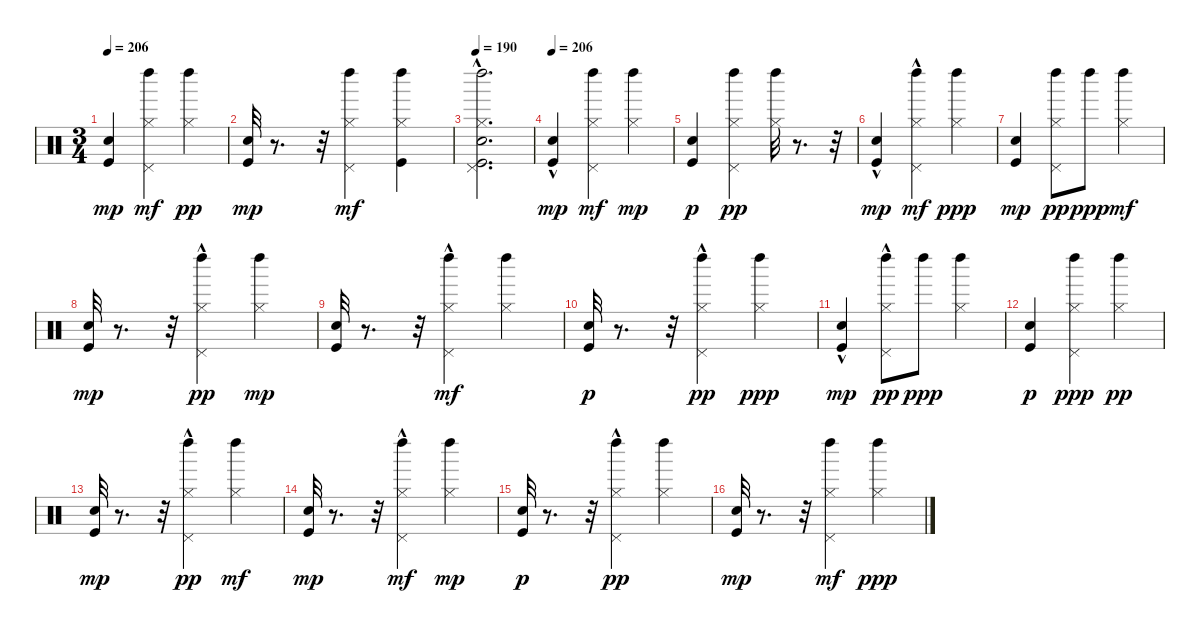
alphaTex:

\track "" {instrument percussion}
\staff {score}
\articulation defaults
\ts (3 4)
\tempo 206
\clef neutral
\ks c
("Kick (hit)" "Snare (hit)").4{dy mp} ("Pedal Hi-Hat (hit)" "Left Maraca (hit)" "Hi-Hat (closed)").4{dy mf} ("Hi-Hat (closed)" "Left Maraca (hit)").4{dy pp} |
("Kick (hit)" "Snare (hit)").32{dy mp} r.8{d} r.32 ("Pedal Hi-Hat (hit)" "Left Maraca (hit)" "Hi-Hat (closed)").4{dy mf} ("Kick (hit)" "Left Maraca (hit)" "Hi-Hat (closed)").4 |
\tempo 190
("Snare (hit)" "Kick (hit)" "Left Maraca (hit)" "Pedal Hi-Hat (hit)"{hac} "Hi-Hat (closed)").2{d} |
\tempo 206
("Kick (hit)"{hac} "Snare (hit)"{hac}).4{dy mp} ("Pedal Hi-Hat (hit)" "Left Maraca (hit)" "Hi-Hat (closed)").4{dy mf} ("Left Maraca (hit)" "Hi-Hat (closed)").4{dy mp} |
("Snare (hit)" "Kick (hit)").4{dy p} ("Hi-Hat (closed)" "Left Maraca (hit)" "Pedal Hi-Hat (hit)").4{dy pp} ("Hi-Hat (closed)" "Left Maraca (hit)").32 r.8{d} r.32 |
("Kick (hit)" "Snare (hit)"{hac}).4{dy mp} ("Pedal Hi-Hat (hit)"{hac} "Left Maraca (hit)" "Hi-Hat (closed)").4{dy mf} ("Hi-Hat (closed)" "Left Maraca (hit)").4{dy ppp} |
("Kick (hit)" "Snare (hit)").4{dy mp} ("Pedal Hi-Hat (hit)" "Hi-Hat (closed)" "Left Maraca (hit)").8{dy pp} "Left Maraca (hit)".8{dy ppp} ("Left Maraca (hit)" "Hi-Hat (closed)").4{dy mf} |
("Kick (hit)" "Snare (hit)").32{dy mp} r.8{d} r.32 ("Left Maraca (hit)" "Hi-Hat (closed)" "Pedal Hi-Hat (hit)"{hac}).4{dy pp} ("Left Maraca (hit)" "Hi-Hat (closed)").4{dy mp} |
("Kick (hit)" "Snare (hit)").32 r.8{d} r.32 ("Pedal Hi-Hat (hit)"{hac} "Left Maraca (hit)" "Hi-Hat (closed)").4{dy mf} ("Left Maraca (hit)" "Hi-Hat (closed)").4 |
("Snare (hit)" "Kick (hit)").32{dy p} r.8{d} r.32 ("Hi-Hat (closed)" "Left Maraca (hit)" "Pedal Hi-Hat (hit)"{hac}).4{dy pp} ("Hi-Hat (closed)" "Left Maraca (hit)").4{dy ppp} |
("Kick (hit)"{hac} "Snare (hit)"{hac}).4{dy mp} ("Pedal Hi-Hat (hit)"{hac} "Hi-Hat (closed)" "Left Maraca (hit)").8{dy pp} "Left Maraca (hit)".8{dy ppp} ("Hi-Hat (closed)" "Left Maraca (hit)").4 |
("Snare (hit)" "Kick (hit)").4{dy p} ("Pedal Hi-Hat (hit)" "Hi-Hat (closed)" "Left Maraca (hit)").4{dy ppp} ("Hi-Hat (closed)" "Left Maraca (hit)").4{dy pp} |
("Kick (hit)" "Snare (hit)").32{dy mp} r.8{d} r.32 ("Left Maraca (hit)" "Hi-Hat (closed)" "Pedal Hi-Hat (hit)"{hac}).4{dy pp} ("Left Maraca (hit)" "Hi-Hat (closed)").4{dy mf} |
("Kick (hit)" "Snare (hit)").32{dy mp} r.8{d} r.32 ("Pedal Hi-Hat (hit)"{hac} "Left Maraca (hit)" "Hi-Hat (closed)").4{dy mf} ("Left Maraca (hit)" "Hi-Hat (closed)").4{dy mp} |
("Snare (hit)" "Kick (hit)").32{dy p} r.8{d} r.32 ("Hi-Hat (closed)" "Left Maraca (hit)" "Pedal Hi-Hat (hit)"{hac}).4{dy pp} ("Hi-Hat (closed)" "Left Maraca (hit)").4 |
("Kick (hit)" "Snare (hit)").32{dy mp} r.8{d} r.32 ("Pedal Hi-Hat (hit)" "Left Maraca (hit)" "Hi-Hat (closed)").4{dy mf} ("Hi-Hat (closed)" "Left Maraca (hit)").4{dy ppp}
